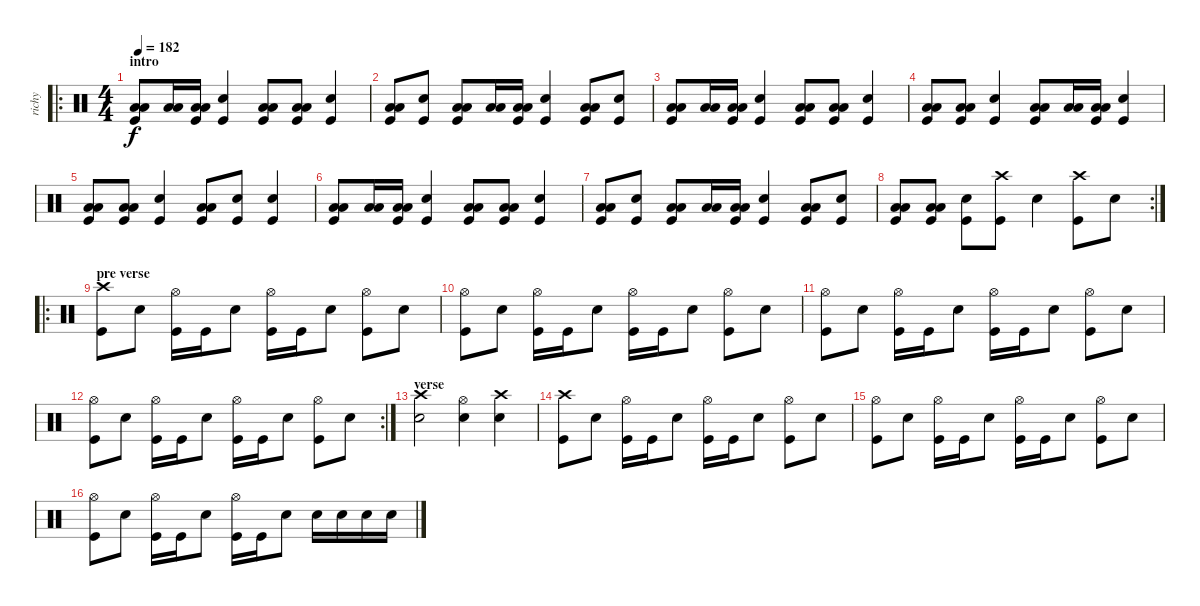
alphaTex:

\track ("richy" "richy") {instrument percussion}
\staff {score}
\articulation defaults
\ro
\ts (4 4)
\section ("" "intro")
\tempo 182
\clef neutral
\ks c
("Kick (hit)" "Low Floor Tom (hit)" "Low Floor Tom (hit)").8{dy f} ("Low Tom (hit)" "Low Tom (hit)").16 ("Kick (hit)" "Low Tom (hit)" "Low Floor Tom (hit)").16 ("Kick (hit)" "Snare (hit) 2").4 ("Kick (hit)" "Low Tom (hit)" "Low Floor Tom (hit)").8 ("Kick (hit)" "Low Tom (hit)" "Low Tom (hit)").8 ("Kick (hit)" "Snare (hit) 2").4 |
("Kick (hit)" "Low Floor Tom (hit)" "Low Floor Tom (hit)").8 ("Kick (hit)" "Snare (hit) 2").8 ("Kick (hit)" "Low Floor Tom (hit)" "Low Floor Tom (hit)").8 ("Low Tom (hit)" "Low Tom (hit)").16 ("Kick (hit)" "Low Floor Tom (hit)" "Low Floor Tom (hit)").16 ("Kick (hit)" "Snare (hit) 2").4 ("Kick (hit)" "Low Floor Tom (hit)" "Low Floor Tom (hit)").8 ("Kick (hit)" "Snare (hit) 2").8 |
("Kick (hit)" "Low Floor Tom (hit)" "Low Floor Tom (hit)").8 ("Low Tom (hit)" "Low Tom (hit)").16 ("Kick (hit)" "Low Floor Tom (hit)" "Low Floor Tom (hit)").16 ("Kick (hit)" "Snare (hit) 2").4 ("Kick (hit)" "Low Tom (hit)" "Low Floor Tom (hit)").8 ("Kick (hit)" "Low Tom (hit)" "Low Tom (hit)").8 ("Kick (hit)" "Snare (hit) 2").4 |
("Kick (hit)" "Low Floor Tom (hit)" "Low Floor Tom (hit)").8 ("Kick (hit)" "Low Tom (hit)" "Low Tom (hit)").8 ("Kick (hit)" "Snare (hit) 2").4 ("Kick (hit)" "Low Floor Tom (hit)" "Low Floor Tom (hit)").8 ("Low Tom (hit)" "Low Tom (hit)").16 ("Kick (hit)" "Low Floor Tom (hit)" "Low Floor Tom (hit)").16 ("Kick (hit)" "Snare (hit) 2").4 |
("Kick (hit)" "Low Tom (hit)" "Low Tom (hit)").8 ("Kick (hit)" "Low Floor Tom (hit)" "Low Floor Tom (hit)").8 ("Kick (hit)" "Snare (hit) 2").4 ("Kick (hit)" "Low Floor Tom (hit)" "Low Floor Tom (hit)").8 ("Kick (hit)" "Snare (hit) 2").8 ("Kick (hit)" "Snare (hit) 2").4 |
("Kick (hit)" "Low Floor Tom (hit)" "Low Floor Tom (hit)").8 ("Low Tom (hit)" "Low Tom (hit)").16 ("Kick (hit)" "Low Floor Tom (hit)" "Low Floor Tom (hit)").16 ("Kick (hit)" "Snare (hit) 2").4 ("Kick (hit)" "Low Tom (hit)" "Low Floor Tom (hit)").8 ("Kick (hit)" "Low Tom (hit)" "Low Tom (hit)").8 ("Kick (hit)" "Snare (hit) 2").4 |
("Kick (hit)" "Low Floor Tom (hit)" "Low Floor Tom (hit)").8 ("Kick (hit)" "Snare (hit) 2").8 ("Kick (hit)" "Low Floor Tom (hit)" "Low Floor Tom (hit)").8 ("Low Tom (hit)" "Low Tom (hit)").16 ("Kick (hit)" "Low Floor Tom (hit)" "Low Floor Tom (hit)").16 ("Kick (hit)" "Snare (hit) 2").4 ("Kick (hit)" "Low Tom (hit)" "Low Tom (hit)").8 ("Kick (hit)" "Snare (hit) 2").8 |
\rc 2
("Kick (hit)" "Low Floor Tom (hit)" "Low Floor Tom (hit)").8 ("Kick (hit)" "Low Tom (hit)" "Low Tom (hit)").8 ("Kick (hit)" "Snare (hit) 2").8 ("Kick (hit)" "Crash high (hit)").8 "Snare (hit) 2".4 ("Kick (hit)" "Crash high (hit)").8 "Snare (hit) 2".8 |
\ro
\section ("" "pre verse")
("Kick (hit)" "Crash high (hit)").8 "Snare (hit) 2".8 ("Kick (hit)" "Hi-Hat (open)").16 "Kick (hit)".16 "Snare (hit) 2".8 ("Kick (hit)" "Hi-Hat (open)").16 "Kick (hit)".16 "Snare (hit) 2".8 ("Kick (hit)" "Hi-Hat (open)").8 "Snare (hit) 2".8 |
("Kick (hit)" "Hi-Hat (open)").8 "Snare (hit) 2".8 ("Kick (hit)" "Hi-Hat (open)").16 "Kick (hit)".16 "Snare (hit) 2".8 ("Kick (hit)" "Hi-Hat (open)").16 "Kick (hit)".16 "Snare (hit) 2".8 ("Kick (hit)" "Hi-Hat (open)").8 "Snare (hit) 2".8 |
("Kick (hit)" "Hi-Hat (open)").8 "Snare (hit) 2".8 ("Kick (hit)" "Hi-Hat (open)").16 "Kick (hit)".16 "Snare (hit) 2".8 ("Kick (hit)" "Hi-Hat (open)").16 "Kick (hit)".16 "Snare (hit) 2".8 ("Kick (hit)" "Hi-Hat (open)").8 "Snare (hit) 2".8 |
\rc 2
("Kick (hit)" "Hi-Hat (open)").8 "Snare (hit) 2".8 ("Kick (hit)" "Hi-Hat (open)").16 "Kick (hit)".16 "Snare (hit) 2".8 ("Kick (hit)" "Hi-Hat (open)").16 "Kick (hit)".16 "Snare (hit) 2".8 ("Kick (hit)" "Hi-Hat (open)").8 "Snare (hit) 2".8 |
\section ("" "verse")
("Snare (hit) 2" "Crash high (hit)").2 ("Snare (hit) 2" "Hi-Hat (open)").4 ("Snare (hit) 2" "Crash high (hit)").4 |
("Kick (hit)" "Crash high (hit)").8 "Snare (hit) 2".8 ("Kick (hit)" "Hi-Hat (open)").16 "Kick (hit)".16 "Snare (hit) 2".8 ("Kick (hit)" "Hi-Hat (open)").16 "Kick (hit)".16 "Snare (hit) 2".8 ("Kick (hit)" "Hi-Hat (open)").8 "Snare (hit) 2".8 |
("Kick (hit)" "Hi-Hat (open)").8 "Snare (hit) 2".8 ("Kick (hit)" "Hi-Hat (open)").16 "Kick (hit)".16 "Snare (hit) 2".8 ("Kick (hit)" "Hi-Hat (open)").16 "Kick (hit)".16 "Snare (hit) 2".8 ("Kick (hit)" "Hi-Hat (open)").8 "Snare (hit) 2".8 |
("Kick (hit)" "Hi-Hat (open)").8 "Snare (hit) 2".8 ("Kick (hit)" "Hi-Hat (open)").16 "Kick (hit)".16 "Snare (hit) 2".8 ("Kick (hit)" "Hi-Hat (open)").16 "Kick (hit)".16 "Snare (hit) 2".8 "Snare (hit) 2".16 "Snare (hit) 2".16 "Snare (hit) 2".16 "Snare (hit) 2".16
